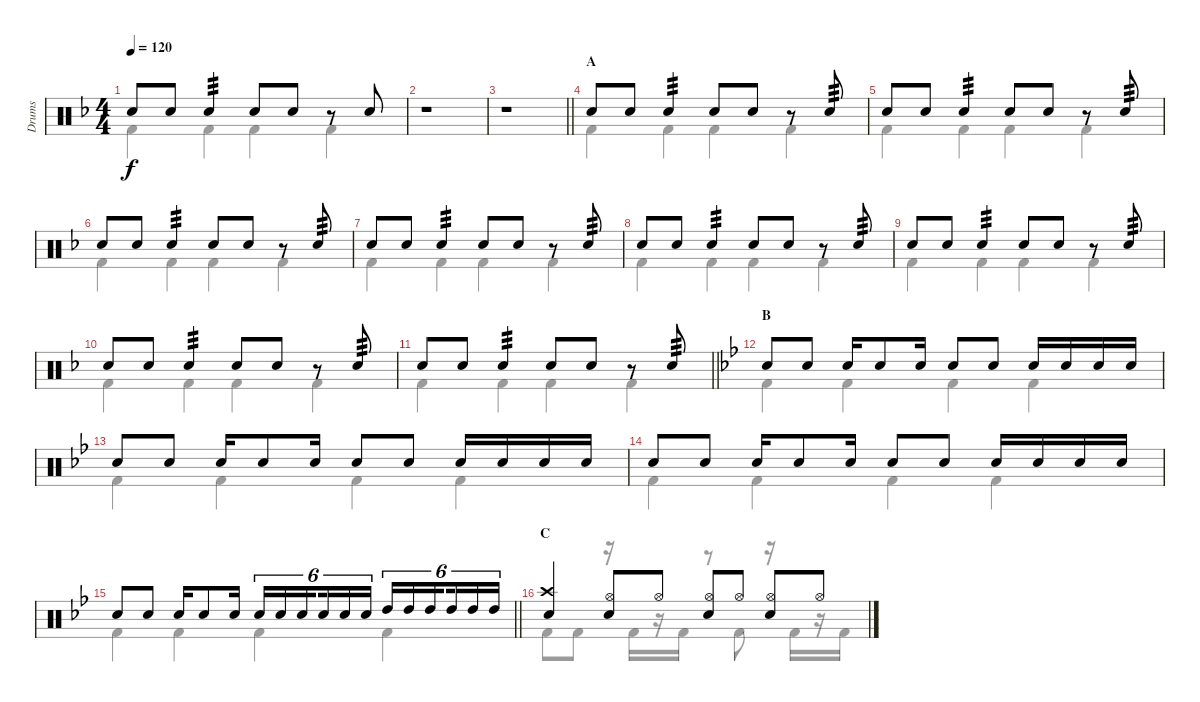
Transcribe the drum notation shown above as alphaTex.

\track ("Drums" "Drums") {instrument percussion}
\staff {score}
\articulation defaults
\voice
\ts (4 4)
\tempo 120
\clef neutral
\ks f "Snare (hit) 2".8{dy f} "Snare (hit) 2".8 "Snare (hit) 2".4{tp 3} "Snare (hit) 2".8 "Snare (hit) 2".8
r.8 "Snare (hit) 2".8 |
r.1 |
\barLineRight lightlight
r.1 |
\section ("" "A")
"Snare (hit) 2".8 "Snare (hit) 2".8 "Snare (hit) 2".4{tp 3} "Snare (hit) 2".8 "Snare (hit) 2".8 r.8 "Snare (hit) 2".8{tp 3} |
"Snare (hit) 2".8 "Snare (hit) 2".8 "Snare (hit) 2".4{tp 3} "Snare (hit) 2".8 "Snare (hit) 2".8 r.8 "Snare (hit) 2".8{tp 3} |
"Snare (hit) 2".8 "Snare (hit) 2".8 "Snare (hit) 2".4{tp 3} "Snare (hit) 2".8 "Snare (hit) 2".8 r.8 "Snare (hit) 2".8{tp 3} |
"Snare (hit) 2".8 "Snare (hit) 2".8 "Snare (hit) 2".4{tp 3} "Snare (hit) 2".8 "Snare (hit) 2".8 r.8 "Snare (hit) 2".8{tp 3} |
"Snare (hit) 2".8 "Snare (hit) 2".8 "Snare (hit) 2".4{tp 3} "Snare (hit) 2".8 "Snare (hit) 2".8 r.8 "Snare (hit) 2".8{tp 3} |
"Snare (hit) 2".8 "Snare (hit) 2".8 "Snare (hit) 2".4{tp 3} "Snare (hit) 2".8 "Snare (hit) 2".8 r.8 "Snare (hit) 2".8{tp 3} |
"Snare (hit) 2".8 "Snare (hit) 2".8 "Snare (hit) 2".4{tp 3} "Snare (hit) 2".8 "Snare (hit) 2".8 r.8 "Snare (hit) 2".8{tp 3} |
\barLineRight lightlight "Snare (hit) 2".8 "Snare (hit) 2".8 "Snare (hit) 2".4{tp 3} "Snare (hit) 2".8 "Snare (hit) 2".8
r.8 "Snare (hit) 2".8{tp 3} |
\section ("" "B")
\ks bb "Snare (hit) 2".8 "Snare (hit) 2".8 "Snare (hit) 2".16 "Snare (hit) 2".8 "Snare (hit) 2".16 "Snare (hit) 2".8 "Snare (hit) 2".8 "Snare (hit) 2".16 "Snare (hit) 2".16 "Snare (hit) 2".16 "Snare (hit) 2".16
|
"Snare (hit) 2".8 "Snare (hit) 2".8 "Snare (hit) 2".16 "Snare (hit) 2".8 "Snare (hit) 2".16 "Snare (hit) 2".8 "Snare (hit) 2".8 "Snare (hit) 2".16 "Snare (hit) 2".16 "Snare (hit) 2".16 "Snare (hit) 2".16 |
"Snare (hit) 2".8 "Snare (hit) 2".8 "Snare (hit) 2".16 "Snare (hit) 2".8 "Snare (hit) 2".16 "Snare (hit) 2".8 "Snare (hit) 2".8 "Snare (hit) 2".16 "Snare (hit) 2".16 "Snare (hit) 2".16 "Snare (hit) 2".16 |
\barLineRight lightlight "Snare (hit) 2".8 "Snare (hit) 2".8 "Snare (hit) 2".16 "Snare (hit) 2".8 "Snare (hit) 2".16 "Snare (hit) 2".16{tu (6 4)} "Snare (hit) 2".16{tu (6 4)} "Snare (hit) 2".16{tu (6 4) beam splitsecondary} "Snare (hit) 2".16{tu (6 4)} "Snare (hit) 2".16{tu (6 4)} "Snare (hit) 2".16{tu (6 4)} "High Tom (hit)".16{tu (6 4)} "High Tom (hit)".16{tu (6 4)} "High Tom (hit)".16{tu (6 4) beam splitsecondary} "High Tom (hit)".16{tu (6 4)} "High Tom (hit)".16{tu (6 4)} "High Tom (hit)".16{tu (6 4)}
|
\section ("" "C")
("Crash high (hit)" "Snare (hit) 2").4 ("Hi-Hat (open)" "Snare (hit) 2").8 "Hi-Hat (open)".8 ("Hi-Hat (open)" "Snare (hit) 2").8 "Hi-Hat (open)".8 ("Hi-Hat (open)" "Snare (hit) 2").8 "Hi-Hat (open)".8
\voice
\clef neutral
\ottava regular
\simile none
\ks f "Kick (hit) 2".4{dy f} "Kick (hit) 2".4 "Kick (hit) 2".4 "Kick (hit) 2".4
|
r.1 |
\barLineRight lightlight
r.1 |
"Kick (hit) 2".4 "Kick (hit) 2".4 "Kick (hit) 2".4 "Kick (hit) 2".4 |
"Kick (hit) 2".4 "Kick (hit) 2".4 "Kick (hit) 2".4 "Kick (hit) 2".4 |
"Kick (hit) 2".4 "Kick (hit) 2".4 "Kick (hit) 2".4 "Kick (hit) 2".4 |
"Kick (hit) 2".4 "Kick (hit) 2".4 "Kick (hit) 2".4 "Kick (hit) 2".4 |
"Kick (hit) 2".4 "Kick (hit) 2".4 "Kick (hit) 2".4 "Kick (hit) 2".4 |
"Kick (hit) 2".4 "Kick (hit) 2".4 "Kick (hit) 2".4 "Kick (hit) 2".4 |
"Kick (hit) 2".4 "Kick (hit) 2".4 "Kick (hit) 2".4 "Kick (hit) 2".4 |
\barLineRight lightlight "Kick (hit) 2".4 "Kick (hit) 2".4 "Kick (hit) 2".4 "Kick (hit) 2".4
|
\ks bb "Kick (hit) 2".4 "Kick (hit) 2".4 "Kick (hit) 2".4 "Kick (hit) 2".4
|
"Kick (hit) 2".4 "Kick (hit) 2".4 "Kick (hit) 2".4 "Kick (hit) 2".4 |
"Kick (hit) 2".4 "Kick (hit) 2".4 "Kick (hit) 2".4 "Kick (hit) 2".4 |
\barLineRight lightlight "Kick (hit) 2".4 "Kick (hit) 2".4 "Kick (hit) 2".4 "Kick (hit) 2".4
|
"Kick (hit) 2".8 "Kick (hit) 2".8 r.16 "Kick (hit) 2".16 r.16 "Kick (hit) 2".16 r.8 "Kick (hit) 2".8 r.16 "Kick (hit) 2".16 r.16 "Kick (hit) 2".16
